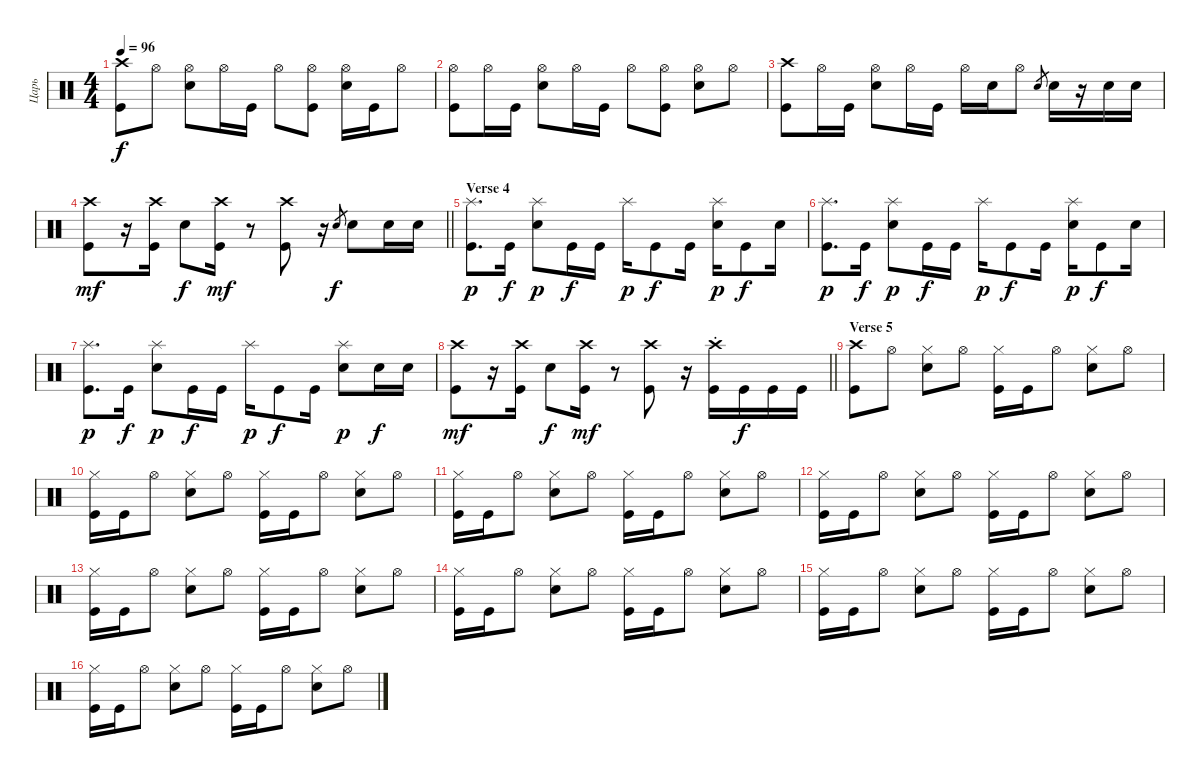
\track ("Царь" "Царь") {instrument percussion}
\staff {score}
\articulation defaults
\ts (4 4)
\tempo 96
\clef neutral
\ks c
("Crash high (hit)" "Kick (hit)").8{dy f} "Hi-Hat (open)".8 ("Electric Snare (hit)" "Hi-Hat (open)").8 "Hi-Hat (open)".16 "Kick (hit)".16 "Hi-Hat (open)".8 ("Kick (hit)" "Hi-Hat (open)").8 ("Electric Snare (hit)" "Hi-Hat (open)").16 "Kick (hit)".16 "Hi-Hat (open)".8 |
("Kick (hit)" "Hi-Hat (open)").8 "Hi-Hat (open)".16 "Kick (hit)".16 ("Electric Snare (hit)" "Hi-Hat (open)").8 "Hi-Hat (open)".16 "Kick (hit)".16 "Hi-Hat (open)".8 ("Kick (hit)" "Hi-Hat (open)").8 ("Electric Snare (hit)" "Hi-Hat (open)").8 "Hi-Hat (open)".8 |
("Crash high (hit)" "Kick (hit)").8 "Hi-Hat (open)".16 "Kick (hit)".16 ("Electric Snare (hit)" "Hi-Hat (open)").8 "Hi-Hat (open)".16 "Kick (hit)".16 "Hi-Hat (open)".16 "Electric Snare (hit)".16 "Hi-Hat (open)".8 "Electric Snare (hit)".8{gr} "Electric Snare (hit)".16 r.16 "Electric Snare (hit)".16 "Electric Snare (hit)".16 |
\barLineRight lightlight
("Kick (hit)" "Crash high (hit)").8{dy mf} r.16 ("Kick (hit)" "Crash high (hit)").16 "Electric Snare (hit)".8{dy f} ("Kick (hit)" "Crash high (hit)").16{dy mf} r.8 ("Kick (hit)" "Crash high (hit)").8 r.16 "Electric Snare (hit)".8{gr dy f} "Electric Snare (hit)".8 "Electric Snare (hit)".16 "Electric Snare (hit)".16 |
\section ("" "Verse 4")
("Kick (hit)" "Splash (hit)").8{d dy p} "Kick (hit)".16{dy f} ("Electric Snare (hit)" "Splash (hit)").8{dy p} "Kick (hit)".16{dy f} "Kick (hit)".16 "Splash (hit)".16{dy p} "Kick (hit)".8{dy f} "Kick (hit)".16 ("Electric Snare (hit)" "Splash (hit)").16{dy p} "Kick (hit)".8{dy f} "Electric Snare (hit)".16 |
("Kick (hit)" "Splash (hit)").8{d dy p} "Kick (hit)".16{dy f} ("Electric Snare (hit)" "Splash (hit)").8{dy p} "Kick (hit)".16{dy f} "Kick (hit)".16 "Splash (hit)".16{dy p} "Kick (hit)".8{dy f} "Kick (hit)".16 ("Electric Snare (hit)" "Splash (hit)").16{dy p} "Kick (hit)".8{dy f} "Electric Snare (hit)".16 |
("Kick (hit)" "Splash (hit)").8{d dy p} "Kick (hit)".16{dy f} ("Electric Snare (hit)" "Splash (hit)").8{dy p} "Kick (hit)".16{dy f} "Kick (hit)".16 "Splash (hit)".16{dy p} "Kick (hit)".8{dy f} "Kick (hit)".16 ("Electric Snare (hit)" "Splash (hit)").8{dy p} "Electric Snare (hit)".16{dy f} "Electric Snare (hit)".16 |
\barLineRight lightlight
("Kick (hit)" "Crash high (hit)").8{dy mf} r.16 ("Kick (hit)" "Crash high (hit)").16 "Electric Snare (hit)".8{dy f} ("Kick (hit)" "Crash high (hit)").16{dy mf} r.8 ("Kick (hit)" "Crash high (hit)").8 r.16 ("Kick (hit)" "Crash high (hit)"{st}).16 "Kick (hit)".16{dy f} "Kick (hit)".16 "Kick (hit)".16 |
\section ("" "Verse 5")
("Crash high (hit)" "Kick (hit)").8 "Hi-Hat (open)".8 ("Electric Snare (hit)" "Hi-Hat (closed)").8 "Hi-Hat (open)".8 ("Kick (hit)" "Hi-Hat (closed)").16 "Kick (hit)".16 "Hi-Hat (open)".8 ("Electric Snare (hit)" "Hi-Hat (closed)").8 "Hi-Hat (open)".8 |
("Kick (hit)" "Hi-Hat (closed)").16 "Kick (hit)".16 "Hi-Hat (open)".8 ("Electric Snare (hit)" "Hi-Hat (closed)").8 "Hi-Hat (open)".8 ("Kick (hit)" "Hi-Hat (closed)").16 "Kick (hit)".16 "Hi-Hat (open)".8 ("Electric Snare (hit)" "Hi-Hat (closed)").8 "Hi-Hat (open)".8 |
("Kick (hit)" "Hi-Hat (closed)").16 "Kick (hit)".16 "Hi-Hat (open)".8 ("Electric Snare (hit)" "Hi-Hat (closed)").8 "Hi-Hat (open)".8 ("Kick (hit)" "Hi-Hat (closed)").16 "Kick (hit)".16 "Hi-Hat (open)".8 ("Electric Snare (hit)" "Hi-Hat (closed)").8 "Hi-Hat (open)".8 |
("Kick (hit)" "Hi-Hat (closed)").16 "Kick (hit)".16 "Hi-Hat (open)".8 ("Electric Snare (hit)" "Hi-Hat (closed)").8 "Hi-Hat (open)".8 ("Kick (hit)" "Hi-Hat (closed)").16 "Kick (hit)".16 "Hi-Hat (open)".8 ("Electric Snare (hit)" "Hi-Hat (closed)").8 "Hi-Hat (open)".8 |
("Kick (hit)" "Hi-Hat (closed)").16 "Kick (hit)".16 "Hi-Hat (open)".8 ("Electric Snare (hit)" "Hi-Hat (closed)").8 "Hi-Hat (open)".8 ("Kick (hit)" "Hi-Hat (closed)").16 "Kick (hit)".16 "Hi-Hat (open)".8 ("Electric Snare (hit)" "Hi-Hat (closed)").8 "Hi-Hat (open)".8 |
("Kick (hit)" "Hi-Hat (closed)").16 "Kick (hit)".16 "Hi-Hat (open)".8 ("Electric Snare (hit)" "Hi-Hat (closed)").8 "Hi-Hat (open)".8 ("Kick (hit)" "Hi-Hat (closed)").16 "Kick (hit)".16 "Hi-Hat (open)".8 ("Electric Snare (hit)" "Hi-Hat (closed)").8 "Hi-Hat (open)".8 |
("Kick (hit)" "Hi-Hat (closed)").16 "Kick (hit)".16 "Hi-Hat (open)".8 ("Electric Snare (hit)" "Hi-Hat (closed)").8 "Hi-Hat (open)".8 ("Kick (hit)" "Hi-Hat (closed)").16 "Kick (hit)".16 "Hi-Hat (open)".8 ("Electric Snare (hit)" "Hi-Hat (closed)").8 "Hi-Hat (open)".8 |
("Kick (hit)" "Hi-Hat (closed)").16 "Kick (hit)".16 "Hi-Hat (open)".8 ("Electric Snare (hit)" "Hi-Hat (closed)").8 "Hi-Hat (open)".8 ("Kick (hit)" "Hi-Hat (closed)").16 "Kick (hit)".16 "Hi-Hat (open)".8 ("Electric Snare (hit)" "Hi-Hat (closed)").8 "Hi-Hat (open)".8
